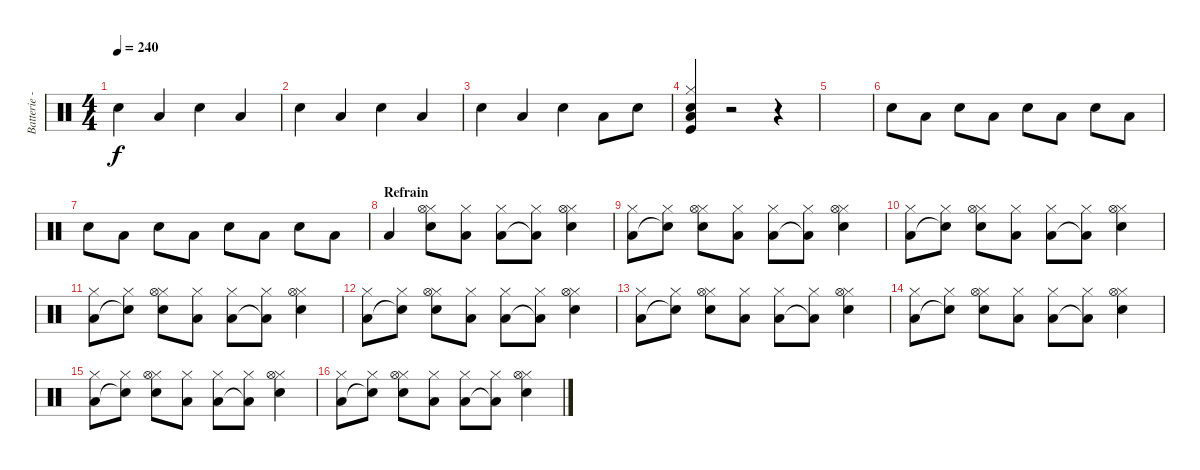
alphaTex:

\track ("Batterie - Guillaume" "Batterie -") {instrument percussion}
\staff {score}
\articulation defaults
\ts (4 4)
\tempo 240
\clef neutral
\ks c "Electric Snare (hit)".4{dy f} "Low Tom (hit)".4 "Electric Snare (hit)".4 "Low Tom (hit)".4
|
"Electric Snare (hit)".4 "Low Tom (hit)".4 "Electric Snare (hit)".4 "Low Tom (hit)".4 |
"Electric Snare (hit)".4 "Low Tom (hit)".4 "Electric Snare (hit)".4 "Low Tom (hit)".8 "Electric Snare (hit)".8 |
("Hi-Hat (closed)" "Low Tom (hit)" "Electric Snare (hit)" "Kick (hit)").4 r.2 r.4 |
|
"Electric Snare (hit)".8 "Low Tom (hit)".8 "Electric Snare (hit)".8 "Low Tom (hit)".8 "Electric Snare (hit)".8 "Low Tom (hit)".8 "Electric Snare (hit)".8 "Low Tom (hit)".8 |
"Electric Snare (hit)".8 "Low Tom (hit)".8 "Electric Snare (hit)".8 "Low Tom (hit)".8 "Electric Snare (hit)".8 "Low Tom (hit)".8 "Electric Snare (hit)".8 "Low Tom (hit)".8 |
\section ("" "Refrain")
"Low Tom (hit)".4 ("Hi-Hat (closed)" "Hi-Hat (open)" "Electric Snare (hit)").8 ("Hi-Hat (closed)" "Low Tom (hit)").8 ("Hi-Hat (closed)" "Low Tom (hit)").8 ("Hi-Hat (closed)" "Low Tom (hit)"{t}).8 ("Hi-Hat (closed)" "Hi-Hat (open)" "Electric Snare (hit)").4 |
("Hi-Hat (closed)" "Low Tom (hit)").8 ("Hi-Hat (closed)" "Snare (hit)"{t}).8 ("Hi-Hat (closed)" "Hi-Hat (open)" "Electric Snare (hit)").8 ("Hi-Hat (closed)" "Low Tom (hit)").8 ("Hi-Hat (closed)" "Low Tom (hit)").8 ("Hi-Hat (closed)" "Low Tom (hit)"{t}).8 ("Hi-Hat (closed)" "Hi-Hat (open)" "Electric Snare (hit)").4 |
("Hi-Hat (closed)" "Low Tom (hit)").8 ("Hi-Hat (closed)" "Snare (hit)"{t}).8 ("Hi-Hat (closed)" "Hi-Hat (open)" "Electric Snare (hit)").8 ("Hi-Hat (closed)" "Low Tom (hit)").8 ("Hi-Hat (closed)" "Low Tom (hit)").8 ("Hi-Hat (closed)" "Low Tom (hit)"{t}).8 ("Hi-Hat (closed)" "Hi-Hat (open)" "Electric Snare (hit)").4 |
("Hi-Hat (closed)" "Low Tom (hit)").8 ("Hi-Hat (closed)" "Snare (hit)"{t}).8 ("Hi-Hat (closed)" "Hi-Hat (open)" "Electric Snare (hit)").8 ("Hi-Hat (closed)" "Low Tom (hit)").8 ("Hi-Hat (closed)" "Low Tom (hit)").8 ("Hi-Hat (closed)" "Low Tom (hit)"{t}).8 ("Hi-Hat (closed)" "Hi-Hat (open)" "Electric Snare (hit)").4 |
("Hi-Hat (closed)" "Low Tom (hit)").8 ("Hi-Hat (closed)" "Snare (hit)"{t}).8 ("Hi-Hat (closed)" "Hi-Hat (open)" "Electric Snare (hit)").8 ("Hi-Hat (closed)" "Low Tom (hit)").8 ("Hi-Hat (closed)" "Low Tom (hit)").8 ("Hi-Hat (closed)" "Low Tom (hit)"{t}).8 ("Hi-Hat (closed)" "Hi-Hat (open)" "Electric Snare (hit)").4 |
("Hi-Hat (closed)" "Low Tom (hit)").8 ("Hi-Hat (closed)" "Snare (hit)"{t}).8 ("Hi-Hat (closed)" "Hi-Hat (open)" "Electric Snare (hit)").8 ("Hi-Hat (closed)" "Low Tom (hit)").8 ("Hi-Hat (closed)" "Low Tom (hit)").8 ("Hi-Hat (closed)" "Low Tom (hit)"{t}).8 ("Hi-Hat (closed)" "Hi-Hat (open)" "Electric Snare (hit)").4 |
("Hi-Hat (closed)" "Low Tom (hit)").8 ("Hi-Hat (closed)" "Snare (hit)"{t}).8 ("Hi-Hat (closed)" "Hi-Hat (open)" "Electric Snare (hit)").8 ("Hi-Hat (closed)" "Low Tom (hit)").8 ("Hi-Hat (closed)" "Low Tom (hit)").8 ("Hi-Hat (closed)" "Low Tom (hit)"{t}).8 ("Hi-Hat (closed)" "Hi-Hat (open)" "Electric Snare (hit)").4 |
("Hi-Hat (closed)" "Low Tom (hit)").8 ("Hi-Hat (closed)" "Snare (hit)"{t}).8 ("Hi-Hat (closed)" "Hi-Hat (open)" "Electric Snare (hit)").8 ("Hi-Hat (closed)" "Low Tom (hit)").8 ("Hi-Hat (closed)" "Low Tom (hit)").8 ("Hi-Hat (closed)" "Low Tom (hit)"{t}).8 ("Hi-Hat (closed)" "Hi-Hat (open)" "Electric Snare (hit)").4 |
("Hi-Hat (closed)" "Low Tom (hit)").8 ("Hi-Hat (closed)" "Snare (hit)"{t}).8 ("Hi-Hat (closed)" "Hi-Hat (open)" "Electric Snare (hit)").8 ("Hi-Hat (closed)" "Low Tom (hit)").8 ("Hi-Hat (closed)" "Low Tom (hit)").8 ("Hi-Hat (closed)" "Low Tom (hit)"{t}).8 ("Hi-Hat (closed)" "Hi-Hat (open)" "Electric Snare (hit)").4
